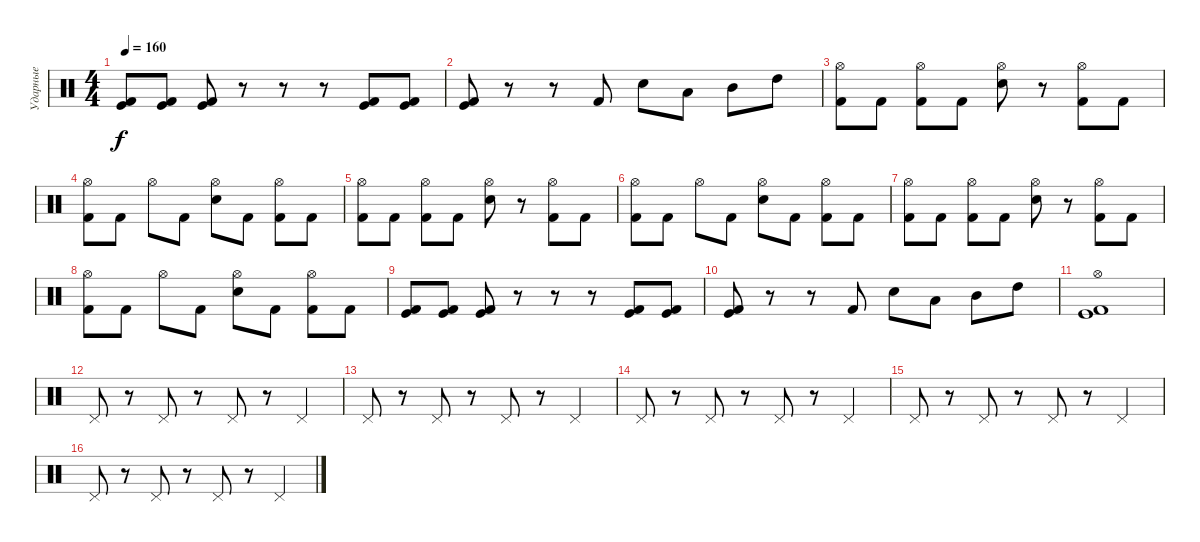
\track ("Ударные" "Ударные") {instrument percussion}
\staff {score}
\articulation defaults
\ts (4 4)
\tempo 160
\clef neutral
\ks c
("Kick (hit) 2" "Kick (hit)").8{dy f} ("Kick (hit) 2" "Kick (hit)").8 ("Kick (hit) 2" "Kick (hit)").8 r.8 r.8 r.8 ("Kick (hit) 2" "Kick (hit)").8 ("Kick (hit) 2" "Kick (hit)").8 |
("Kick (hit) 2" "Kick (hit)").8 r.8 r.8 "Kick (hit) 2".8 "Electric Snare (hit)".8 "Low Tom (hit)".8 "Mid Tom (hit)".8 "High Tom (hit)".8 |
("Hi-Hat (open)" "Kick (hit) 2").8 "Kick (hit) 2".8 ("Hi-Hat (open)" "Kick (hit) 2").8 "Kick (hit) 2".8 ("Hi-Hat (open)" "Electric Snare (hit)").8 r.8 ("Hi-Hat (open)" "Kick (hit) 2").8 "Kick (hit) 2".8 |
("Hi-Hat (open)" "Kick (hit) 2").8 "Kick (hit) 2".8 "Hi-Hat (open)".8 "Kick (hit) 2".8 ("Hi-Hat (open)" "Electric Snare (hit)").8 "Kick (hit) 2".8 ("Hi-Hat (open)" "Kick (hit) 2").8 "Kick (hit) 2".8 |
("Hi-Hat (open)" "Kick (hit) 2").8 "Kick (hit) 2".8 ("Hi-Hat (open)" "Kick (hit) 2").8 "Kick (hit) 2".8 ("Hi-Hat (open)" "Electric Snare (hit)").8 r.8 ("Hi-Hat (open)" "Kick (hit) 2").8 "Kick (hit) 2".8 |
("Hi-Hat (open)" "Kick (hit) 2").8 "Kick (hit) 2".8 "Hi-Hat (open)".8 "Kick (hit) 2".8 ("Hi-Hat (open)" "Electric Snare (hit)").8 "Kick (hit) 2".8 ("Hi-Hat (open)" "Kick (hit) 2").8 "Kick (hit) 2".8 |
("Hi-Hat (open)" "Kick (hit) 2").8 "Kick (hit) 2".8 ("Hi-Hat (open)" "Kick (hit) 2").8 "Kick (hit) 2".8 ("Hi-Hat (open)" "Electric Snare (hit)").8 r.8 ("Hi-Hat (open)" "Kick (hit) 2").8 "Kick (hit) 2".8 |
("Hi-Hat (open)" "Kick (hit) 2").8 "Kick (hit) 2".8 "Hi-Hat (open)".8 "Kick (hit) 2".8 ("Hi-Hat (open)" "Electric Snare (hit)").8 "Kick (hit) 2".8 ("Hi-Hat (open)" "Kick (hit) 2").8 "Kick (hit) 2".8 |
("Kick (hit) 2" "Kick (hit)").8 ("Kick (hit) 2" "Kick (hit)").8 ("Kick (hit) 2" "Kick (hit)").8 r.8 r.8 r.8 ("Kick (hit) 2" "Kick (hit)").8 ("Kick (hit) 2" "Kick (hit)").8 |
("Kick (hit) 2" "Kick (hit)").8 r.8 r.8 "Kick (hit) 2".8 "Electric Snare (hit)".8 "Low Tom (hit)".8 "Mid Tom (hit)".8 "High Tom (hit)".8 |
("Hi-Hat (open)" "Kick (hit) 2" "Kick (hit)").1 |
"Pedal Hi-Hat (hit)".8 r.8 "Pedal Hi-Hat (hit)".8 r.8 "Pedal Hi-Hat (hit)".8 r.8 "Pedal Hi-Hat (hit)".4 |
"Pedal Hi-Hat (hit)".8 r.8 "Pedal Hi-Hat (hit)".8 r.8 "Pedal Hi-Hat (hit)".8 r.8 "Pedal Hi-Hat (hit)".4 |
"Pedal Hi-Hat (hit)".8 r.8 "Pedal Hi-Hat (hit)".8 r.8 "Pedal Hi-Hat (hit)".8 r.8 "Pedal Hi-Hat (hit)".4 |
"Pedal Hi-Hat (hit)".8 r.8 "Pedal Hi-Hat (hit)".8 r.8 "Pedal Hi-Hat (hit)".8 r.8 "Pedal Hi-Hat (hit)".4 |
"Pedal Hi-Hat (hit)".8 r.8 "Pedal Hi-Hat (hit)".8 r.8 "Pedal Hi-Hat (hit)".8 r.8 "Pedal Hi-Hat (hit)".4
